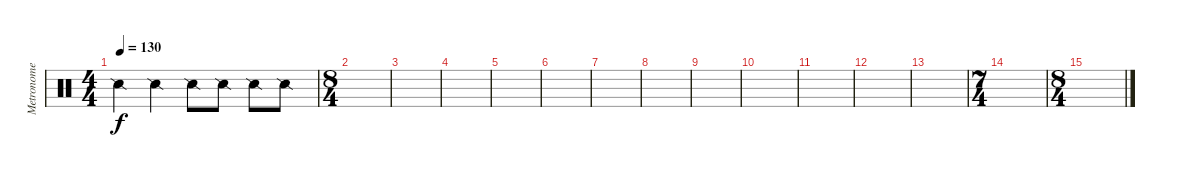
\track ("Metronome" "Metronome") {instrument percussion}
\staff {score}
\articulation defaults
\ts (4 4)
\tempo 130
\clef neutral
\ks c "Snare (side stick) 2".4{dy f} "Snare (side stick) 2".4 "Snare (side stick) 2".8 "Snare (side stick) 2".8 "Snare (side stick) 2".8 "Snare (side stick) 2".8
|
\ts (8 4)
|
|
|
|
|
|
|
|
|
|
|
|
\ts (7 4)
|
\ts (8 4)
